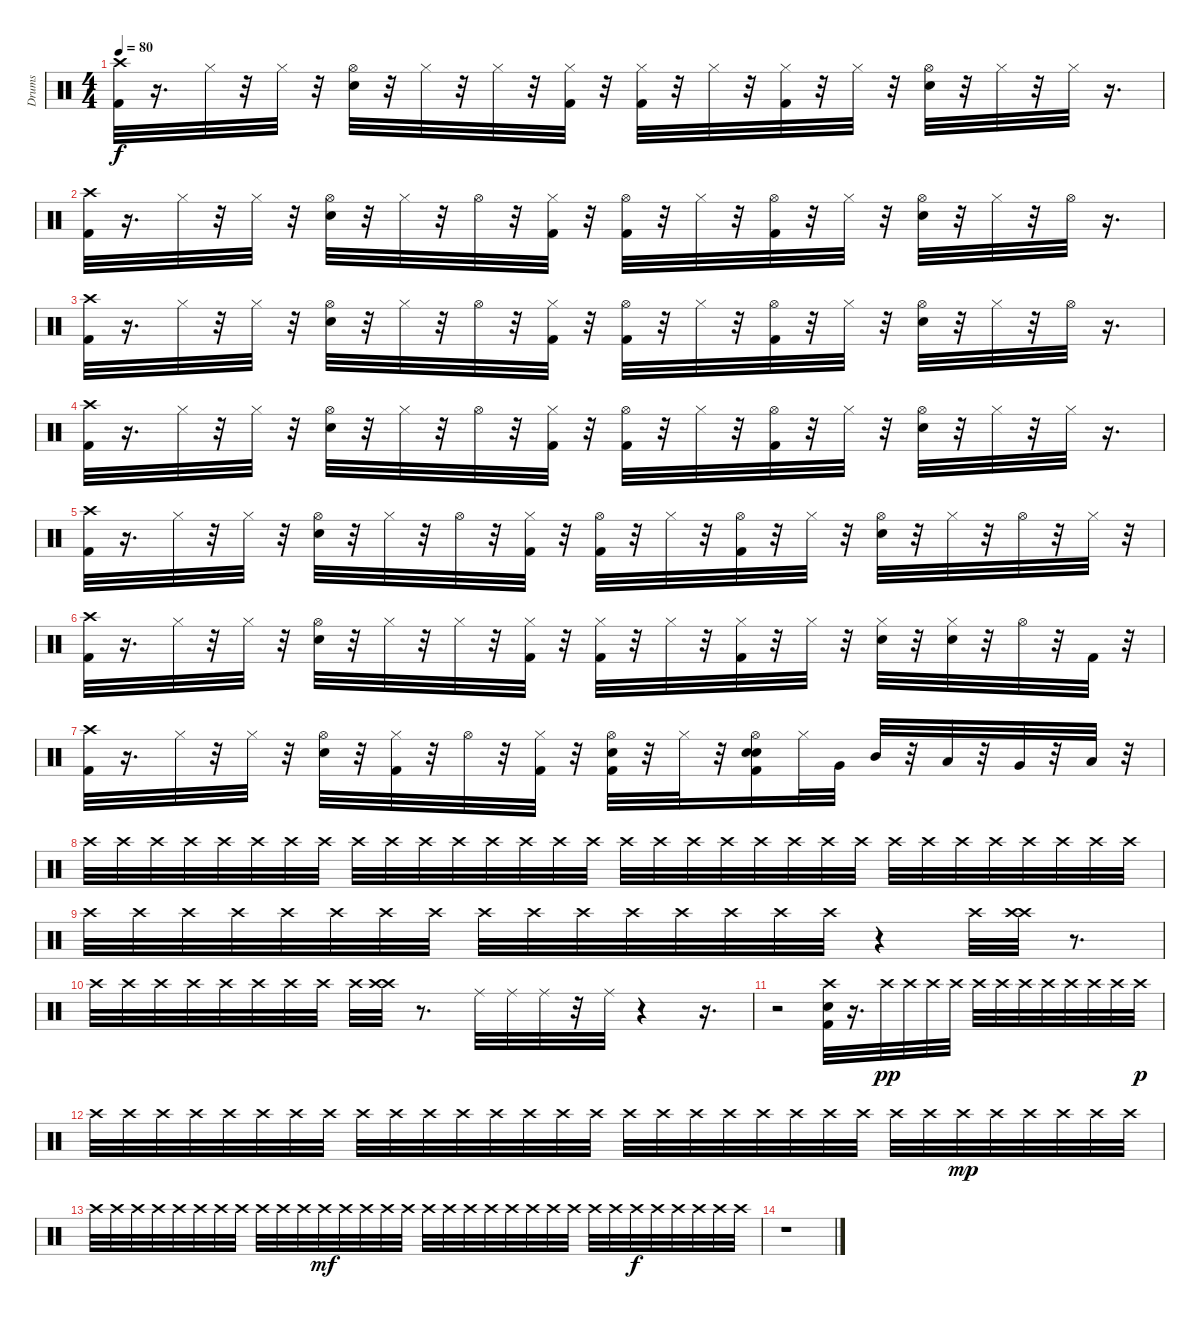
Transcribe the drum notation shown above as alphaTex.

\track ("Drums" "Drums") {instrument percussion}
\staff {score}
\articulation defaults
\ts (4 4)
\tempo 80
\clef neutral
\ks c
("Kick (hit) 2" "Crash high (hit)").32{dy f} r.16{d} "Hi-Hat (closed)".32 r.32 "Hi-Hat (closed)".32 r.32 ("Snare (hit) 2" "Hi-Hat (open)").32 r.32 "Hi-Hat (closed)".32 r.32 "Hi-Hat (closed)".32 r.32 ("Kick (hit) 2" "Hi-Hat (closed)").32 r.32 ("Kick (hit) 2" "Hi-Hat (closed)").32 r.32 "Hi-Hat (closed)".32 r.32 ("Hi-Hat (closed)" "Kick (hit) 2").32 r.32 "Hi-Hat (closed)".32 r.32 ("Snare (hit) 2" "Hi-Hat (open)").32 r.32 "Hi-Hat (closed)".32 r.32 "Hi-Hat (closed)".32 r.16{d} |
("Kick (hit) 2" "Crash high (hit)").32 r.16{d} "Hi-Hat (closed)".32 r.32 "Hi-Hat (closed)".32 r.32 ("Snare (hit) 2" "Hi-Hat (open)").32 r.32 "Hi-Hat (closed)".32 r.32 "Hi-Hat (open)".32 r.32 ("Kick (hit) 2" "Hi-Hat (closed)").32 r.32 ("Kick (hit) 2" "Hi-Hat (open)").32 r.32 "Hi-Hat (closed)".32 r.32 ("Hi-Hat (open)" "Kick (hit) 2").32 r.32 "Hi-Hat (closed)".32 r.32 ("Snare (hit) 2" "Hi-Hat (open)").32 r.32 "Hi-Hat (closed)".32 r.32 "Hi-Hat (open)".32 r.16{d} |
("Kick (hit) 2" "Crash high (hit)").32 r.16{d} "Hi-Hat (closed)".32 r.32 "Hi-Hat (closed)".32 r.32 ("Snare (hit) 2" "Hi-Hat (open)").32 r.32 "Hi-Hat (closed)".32 r.32 "Hi-Hat (open)".32 r.32 ("Kick (hit) 2" "Hi-Hat (closed)").32 r.32 ("Kick (hit) 2" "Hi-Hat (open)").32 r.32 "Hi-Hat (closed)".32 r.32 ("Hi-Hat (open)" "Kick (hit) 2").32 r.32 "Hi-Hat (closed)".32 r.32 ("Snare (hit) 2" "Hi-Hat (open)").32 r.32 "Hi-Hat (closed)".32 r.32 "Hi-Hat (open)".32 r.16{d} |
("Kick (hit) 2" "Crash high (hit)").32 r.16{d} "Hi-Hat (closed)".32 r.32 "Hi-Hat (closed)".32 r.32 ("Snare (hit) 2" "Hi-Hat (open)").32 r.32 "Hi-Hat (closed)".32 r.32 "Hi-Hat (open)".32 r.32 ("Kick (hit) 2" "Hi-Hat (closed)").32 r.32 ("Kick (hit) 2" "Hi-Hat (open)").32 r.32 "Hi-Hat (closed)".32 r.32 ("Hi-Hat (open)" "Kick (hit) 2").32 r.32 "Hi-Hat (closed)".32 r.32 ("Snare (hit) 2" "Hi-Hat (open)").32 r.32 "Hi-Hat (closed)".32 r.32 "Hi-Hat (closed)".32 r.16{d} |
("Kick (hit) 2" "Crash high (hit)").32 r.16{d} "Hi-Hat (closed)".32 r.32 "Hi-Hat (closed)".32 r.32 ("Snare (hit) 2" "Hi-Hat (open)").32 r.32 "Hi-Hat (closed)".32 r.32 "Hi-Hat (open)".32 r.32 ("Kick (hit) 2" "Hi-Hat (closed)").32 r.32 ("Kick (hit) 2" "Hi-Hat (open)").32 r.32 "Hi-Hat (closed)".32 r.32 ("Hi-Hat (open)" "Kick (hit) 2").32 r.32 "Hi-Hat (closed)".32 r.32 ("Snare (hit) 2" "Hi-Hat (open)").32 r.32 "Hi-Hat (closed)".32 r.32 "Hi-Hat (open)".32 r.32 "Hi-Hat (closed)".32 r.32 |
("Kick (hit) 2" "Crash high (hit)").32 r.16{d} "Hi-Hat (closed)".32 r.32 "Hi-Hat (closed)".32 r.32 ("Snare (hit) 2" "Hi-Hat (open)").32 r.32 "Hi-Hat (closed)".32 r.32 "Hi-Hat (closed)".32 r.32 ("Kick (hit) 2" "Hi-Hat (closed)").32 r.32 ("Kick (hit) 2" "Hi-Hat (closed)").32 r.32 "Hi-Hat (closed)".32 r.32 ("Hi-Hat (closed)" "Kick (hit) 2").32 r.32 "Hi-Hat (closed)".32 r.32 ("Snare (hit) 2" "Hi-Hat (closed)").32 r.32 ("Snare (hit) 2" "Hi-Hat (closed)").32 r.32 "Hi-Hat (open)".32 r.32 "Kick (hit) 2".32 r.32 |
("Kick (hit) 2" "Crash high (hit)").32 r.16{d} "Hi-Hat (closed)".32 r.32 "Hi-Hat (closed)".32 r.32 ("Snare (hit) 2" "Hi-Hat (open)").32 r.32 ("Kick (hit) 2" "Hi-Hat (closed)").32 r.32 "Hi-Hat (open)".32 r.32 ("Kick (hit) 2" "Hi-Hat (closed)").32 r.32 ("Snare (hit) 2" "Kick (hit) 2" "Hi-Hat (open)").32 r.32 "Hi-Hat (closed)".32 r.32 ("Snare (hit) 2" "Hi-Hat (open)" "Kick (hit) 2" "Snare (hit) 2").16 "Hi-Hat (closed)".32 "Very Low Tom (hit)".32 "Mid Tom (hit)".32 r.32 "Low Tom (hit)".32 r.32 "Very Low Tom (hit)".32 r.32 "Low Floor Tom (hit)".32 r.32 |
"Crash high (hit)".32 "Crash high (hit)".32 "Crash high (hit)".32 "Crash high (hit)".32 "Crash high (hit)".32 "Crash high (hit)".32 "Crash high (hit)".32 "Crash high (hit)".32 "Crash high (hit)".32 "Crash high (hit)".32 "Crash high (hit)".32 "Crash high (hit)".32 "Crash high (hit)".32 "Crash high (hit)".32 "Crash high (hit)".32 "Crash high (hit)".32 "Crash high (hit)".32 "Crash high (hit)".32 "Crash high (hit)".32 "Crash high (hit)".32 "Crash high (hit)".32 "Crash high (hit)".32 "Crash high (hit)".32 "Crash high (hit)".32 "Crash high (hit)".32 "Crash high (hit)".32 "Crash high (hit)".32 "Crash high (hit)".32 "Crash high (hit)".32 "Crash high (hit)".32 "Crash high (hit)".32 "Crash high (hit)".32 |
"Crash high (hit)".32 "Crash high (hit)".32 "Crash high (hit)".32 "Crash high (hit)".32 "Crash high (hit)".32 "Crash high (hit)".32 "Crash high (hit)".32 "Crash high (hit)".32 "Crash high (hit)".32 "Crash high (hit)".32 "Crash high (hit)".32 "Crash high (hit)".32 "Crash high (hit)".32 "Crash high (hit)".32 "Crash high (hit)".32 "Crash high (hit)".32 r.4 "Crash high (hit)".32 ("Crash high (hit)" "Crash high (hit)").32 r.8{d} |
"Crash high (hit)".32 "Crash high (hit)".32 "Crash high (hit)".32 "Crash high (hit)".32 "Crash high (hit)".32 "Crash high (hit)".32 "Crash high (hit)".32 "Crash high (hit)".32 "Crash high (hit)".32 ("Crash high (hit)" "Crash high (hit)").32 r.8{d} "Ride (middle)".32 "Ride (middle)".32 "Ride (middle)".32 r.32 "Ride (middle)".32 r.4 r.16{d} |
r.2 ("Kick (hit) 2" "Snare (hit) 2" "Crash high (hit)").32 r.16{d} "Crash high (hit)".32{dy pp} "Crash high (hit)".32 "Crash high (hit)".32 "Crash high (hit)".32 "Crash high (hit)".32 "Crash high (hit)".32 "Crash high (hit)".32 "Crash high (hit)".32 "Crash high (hit)".32 "Crash high (hit)".32 "Crash high (hit)".32 "Crash high (hit)".32{dy p} |
"Crash high (hit)".32 "Crash high (hit)".32 "Crash high (hit)".32 "Crash high (hit)".32 "Crash high (hit)".32 "Crash high (hit)".32 "Crash high (hit)".32 "Crash high (hit)".32 "Crash high (hit)".32 "Crash high (hit)".32 "Crash high (hit)".32 "Crash high (hit)".32 "Crash high (hit)".32 "Crash high (hit)".32 "Crash high (hit)".32 "Crash high (hit)".32 "Crash high (hit)".32 "Crash high (hit)".32 "Crash high (hit)".32 "Crash high (hit)".32 "Crash high (hit)".32 "Crash high (hit)".32 "Crash high (hit)".32 "Crash high (hit)".32 "Crash high (hit)".32 "Crash high (hit)".32 "Crash high (hit)".32{dy mp} "Crash high (hit)".32 "Crash high (hit)".32 "Crash high (hit)".32 "Crash high (hit)".32 "Crash high (hit)".32 |
"Crash high (hit)".32 "Crash high (hit)".32 "Crash high (hit)".32 "Crash high (hit)".32 "Crash high (hit)".32 "Crash high (hit)".32 "Crash high (hit)".32 "Crash high (hit)".32 "Crash high (hit)".32 "Crash high (hit)".32 "Crash high (hit)".32 "Crash high (hit)".32{dy mf} "Crash high (hit)".32 "Crash high (hit)".32 "Crash high (hit)".32 "Crash high (hit)".32 "Crash high (hit)".32 "Crash high (hit)".32 "Crash high (hit)".32 "Crash high (hit)".32 "Crash high (hit)".32 "Crash high (hit)".32 "Crash high (hit)".32 "Crash high (hit)".32 "Crash high (hit)".32 "Crash high (hit)".32 "Crash high (hit)".32{dy f} "Crash high (hit)".32 "Crash high (hit)".32 "Crash high (hit)".32 "Crash high (hit)".32 "Crash high (hit)".32 |
r.1
